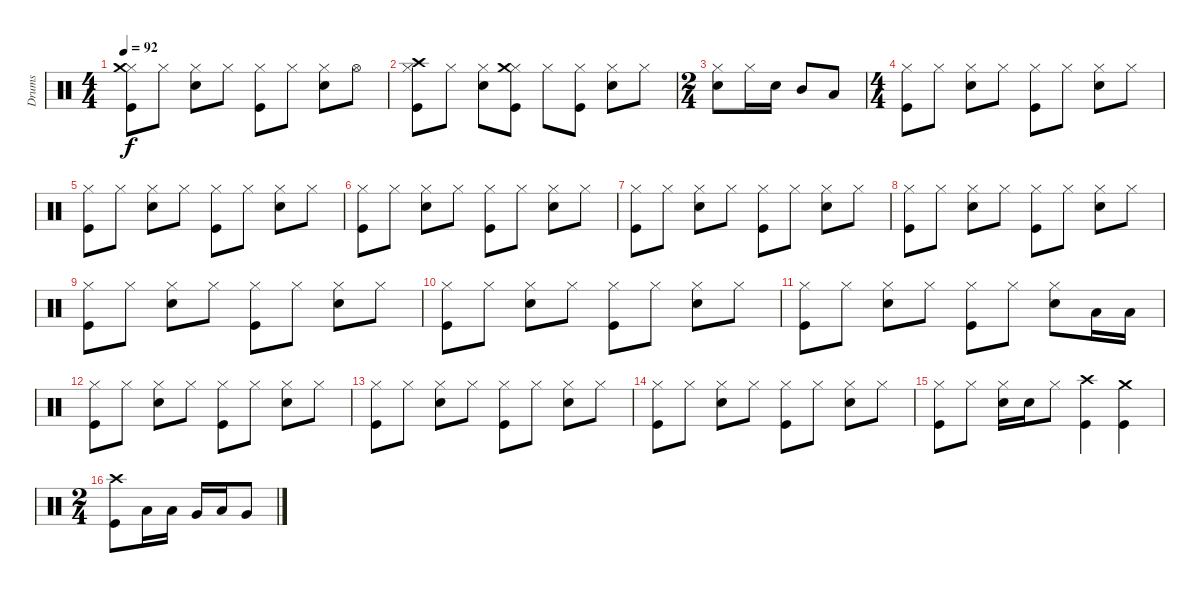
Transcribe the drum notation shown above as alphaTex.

\track ("Drums" "Drums") {instrument percussion}
\staff {score}
\articulation defaults
\ts (4 4)
\tempo 92
\clef neutral
\ks c
("Kick (hit)" "Hi-Hat (closed)" "Crash medium (hit)").8{dy f} "Hi-Hat (closed)".8 ("Electric Snare (hit)" "Hi-Hat (closed)").8 "Hi-Hat (closed)".8 ("Kick (hit)" "Hi-Hat (closed)").8 "Hi-Hat (closed)".8 ("Electric Snare (hit)" "Hi-Hat (closed)").8 "Hi-Hat (open)".8 |
("Kick (hit)" "Hi-Hat (closed)" "Crash high (hit)").8 "Hi-Hat (closed)".8 ("Electric Snare (hit)" "Hi-Hat (closed)").8 ("Kick (hit)" "Hi-Hat (closed)" "Crash medium (hit)").8 "Hi-Hat (closed)".8 ("Kick (hit)" "Hi-Hat (closed)").8 ("Electric Snare (hit)" "Hi-Hat (closed)").8 "Hi-Hat (closed)".8 |
\ts (2 4)
("Electric Snare (hit)" "Hi-Hat (closed)").8 "Hi-Hat (closed)".16 "Electric Snare (hit)".16 "Mid Tom (hit)".8 "Low Tom (hit)".8 |
\ts (4 4)
("Kick (hit)" "Hi-Hat (closed)").8 "Hi-Hat (closed)".8 ("Electric Snare (hit)" "Hi-Hat (closed)").8 "Hi-Hat (closed)".8 ("Kick (hit)" "Hi-Hat (closed)").8 "Hi-Hat (closed)".8 ("Electric Snare (hit)" "Hi-Hat (closed)").8 "Hi-Hat (closed)".8 |
("Kick (hit)" "Hi-Hat (closed)").8 "Hi-Hat (closed)".8 ("Electric Snare (hit)" "Hi-Hat (closed)").8 "Hi-Hat (closed)".8 ("Kick (hit)" "Hi-Hat (closed)").8 "Hi-Hat (closed)".8 ("Electric Snare (hit)" "Hi-Hat (closed)").8 "Hi-Hat (closed)".8 |
("Kick (hit)" "Hi-Hat (closed)").8 "Hi-Hat (closed)".8 ("Electric Snare (hit)" "Hi-Hat (closed)").8 "Hi-Hat (closed)".8 ("Kick (hit)" "Hi-Hat (closed)").8 "Hi-Hat (closed)".8 ("Electric Snare (hit)" "Hi-Hat (closed)").8 "Hi-Hat (closed)".8 |
("Kick (hit)" "Hi-Hat (closed)").8 "Hi-Hat (closed)".8 ("Electric Snare (hit)" "Hi-Hat (closed)").8 "Hi-Hat (closed)".8 ("Kick (hit)" "Hi-Hat (closed)").8 "Hi-Hat (closed)".8 ("Electric Snare (hit)" "Hi-Hat (closed)").8 "Hi-Hat (closed)".8 |
("Kick (hit)" "Hi-Hat (closed)").8 "Hi-Hat (closed)".8 ("Electric Snare (hit)" "Hi-Hat (closed)").8 "Hi-Hat (closed)".8 ("Kick (hit)" "Hi-Hat (closed)").8 "Hi-Hat (closed)".8 ("Electric Snare (hit)" "Hi-Hat (closed)").8 "Hi-Hat (closed)".8 |
("Kick (hit)" "Hi-Hat (closed)").8 "Hi-Hat (closed)".8 ("Electric Snare (hit)" "Hi-Hat (closed)").8 "Hi-Hat (closed)".8 ("Kick (hit)" "Hi-Hat (closed)").8 "Hi-Hat (closed)".8 ("Electric Snare (hit)" "Hi-Hat (closed)").8 "Hi-Hat (closed)".8 |
("Kick (hit)" "Hi-Hat (closed)").8 "Hi-Hat (closed)".8 ("Electric Snare (hit)" "Hi-Hat (closed)").8 "Hi-Hat (closed)".8 ("Kick (hit)" "Hi-Hat (closed)").8 "Hi-Hat (closed)".8 ("Electric Snare (hit)" "Hi-Hat (closed)").8 "Hi-Hat (closed)".8 |
("Kick (hit)" "Hi-Hat (closed)").8 "Hi-Hat (closed)".8 ("Electric Snare (hit)" "Hi-Hat (closed)").8 "Hi-Hat (closed)".8 ("Kick (hit)" "Hi-Hat (closed)").8 "Hi-Hat (closed)".8 ("Electric Snare (hit)" "Hi-Hat (closed)").8 "Low Tom (hit)".16 "Low Tom (hit)".16 |
("Kick (hit)" "Hi-Hat (closed)").8 "Hi-Hat (closed)".8 ("Electric Snare (hit)" "Hi-Hat (closed)").8 "Hi-Hat (closed)".8 ("Kick (hit)" "Hi-Hat (closed)").8 "Hi-Hat (closed)".8 ("Electric Snare (hit)" "Hi-Hat (closed)").8 "Hi-Hat (closed)".8 |
("Kick (hit)" "Hi-Hat (closed)").8 "Hi-Hat (closed)".8 ("Electric Snare (hit)" "Hi-Hat (closed)").8 "Hi-Hat (closed)".8 ("Kick (hit)" "Hi-Hat (closed)").8 "Hi-Hat (closed)".8 ("Electric Snare (hit)" "Hi-Hat (closed)").8 "Hi-Hat (closed)".8 |
("Kick (hit)" "Hi-Hat (closed)").8 "Hi-Hat (closed)".8 ("Electric Snare (hit)" "Hi-Hat (closed)").8 "Hi-Hat (closed)".8 ("Kick (hit)" "Hi-Hat (closed)").8 "Hi-Hat (closed)".8 ("Electric Snare (hit)" "Hi-Hat (closed)").8 "Hi-Hat (closed)".8 |
("Kick (hit)" "Hi-Hat (closed)").8 "Hi-Hat (closed)".8 ("Electric Snare (hit)" "Hi-Hat (closed)").16 "Electric Snare (hit)".16 "Hi-Hat (closed)".8 ("Kick (hit)" "Crash high (hit)").4 ("Kick (hit)" "Crash medium (hit)").4 |
\ts (2 4)
("Kick (hit)" "Crash high (hit)").8 "Low Tom (hit)".16 "Low Tom (hit)".16 "Very Low Tom (hit)".16 "Low Tom (hit)".16 "Very Low Tom (hit)".8
